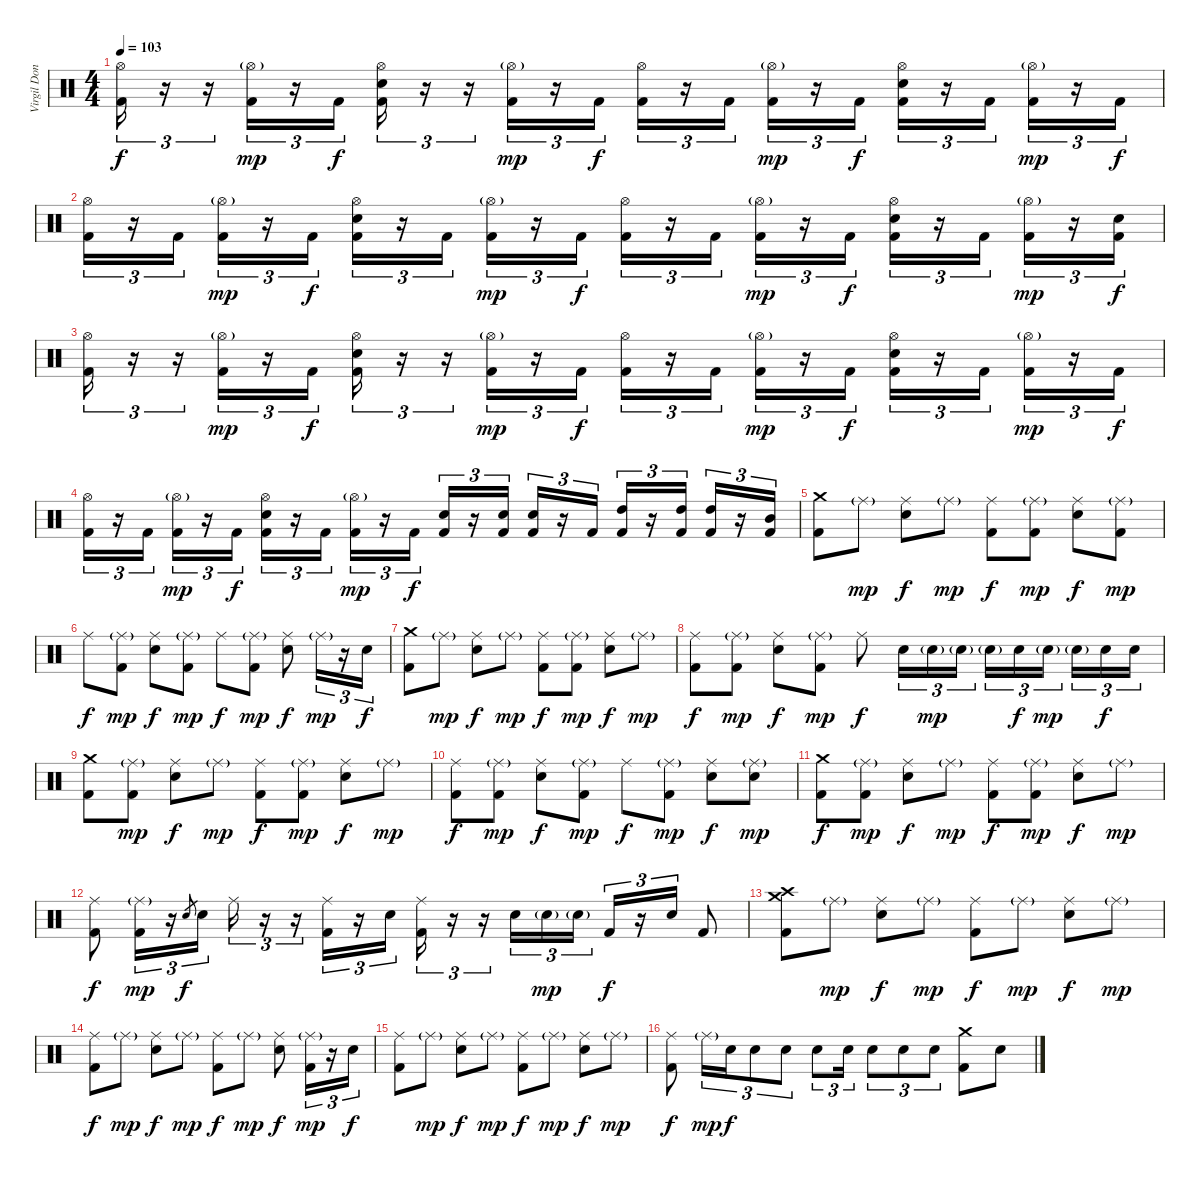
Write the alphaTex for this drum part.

\track ("Virgil Donati" "Virgil Don") {instrument percussion}
\staff {score}
\articulation defaults
\ts (4 4)
\tempo 103
\clef neutral
\ks c
("Hi-Hat (open)" "Kick (hit) 2").16{tu (3 2) dy f} r.16{tu (3 2)} r.16{tu (3 2)} ("Hi-Hat (open)"{g} "Kick (hit) 2").16{tu (3 2) dy mp} r.16{tu (3 2)} "Kick (hit) 2".16{tu (3 2) dy f} ("Hi-Hat (open)" "Snare (hit) 2" "Kick (hit) 2").16{tu (3 2)} r.16{tu (3 2)} r.16{tu (3 2)} ("Hi-Hat (open)"{g} "Kick (hit) 2").16{tu (3 2) dy mp} r.16{tu (3 2)} "Kick (hit) 2".16{tu (3 2) dy f} ("Hi-Hat (open)" "Kick (hit) 2").16{tu (3 2)} r.16{tu (3 2)} "Kick (hit) 2".16{tu (3 2)} ("Hi-Hat (open)"{g} "Kick (hit) 2").16{tu (3 2) dy mp} r.16{tu (3 2)} "Kick (hit) 2".16{tu (3 2) dy f} ("Hi-Hat (open)" "Snare (hit) 2" "Kick (hit) 2").16{tu (3 2)} r.16{tu (3 2)} "Kick (hit) 2".16{tu (3 2)} ("Hi-Hat (open)"{g} "Kick (hit) 2").16{tu (3 2) dy mp} r.16{tu (3 2)} "Kick (hit) 2".16{tu (3 2) dy f} |
("Hi-Hat (open)" "Kick (hit) 2").16{tu (3 2)} r.16{tu (3 2)} "Kick (hit) 2".16{tu (3 2)} ("Hi-Hat (open)"{g} "Kick (hit) 2").16{tu (3 2) dy mp} r.16{tu (3 2)} "Kick (hit) 2".16{tu (3 2) dy f} ("Hi-Hat (open)" "Snare (hit) 2" "Kick (hit) 2").16{tu (3 2)} r.16{tu (3 2)} "Kick (hit) 2".16{tu (3 2)} ("Hi-Hat (open)"{g} "Kick (hit) 2").16{tu (3 2) dy mp} r.16{tu (3 2)} "Kick (hit) 2".16{tu (3 2) dy f} ("Hi-Hat (open)" "Kick (hit) 2").16{tu (3 2)} r.16{tu (3 2)} "Kick (hit) 2".16{tu (3 2)} ("Hi-Hat (open)"{g} "Kick (hit) 2").16{tu (3 2) dy mp} r.16{tu (3 2)} "Kick (hit) 2".16{tu (3 2) dy f} ("Hi-Hat (open)" "Snare (hit) 2" "Kick (hit) 2").16{tu (3 2)} r.16{tu (3 2)} "Kick (hit) 2".16{tu (3 2)} ("Hi-Hat (open)"{g} "Kick (hit) 2").16{tu (3 2) dy mp} r.16{tu (3 2)} ("Snare (hit) 2" "Kick (hit) 2").16{tu (3 2) dy f} |
("Hi-Hat (open)" "Kick (hit) 2").16{tu (3 2)} r.16{tu (3 2)} r.16{tu (3 2)} ("Hi-Hat (open)"{g} "Kick (hit) 2").16{tu (3 2) dy mp} r.16{tu (3 2)} "Kick (hit) 2".16{tu (3 2) dy f} ("Hi-Hat (open)" "Snare (hit) 2" "Kick (hit) 2").16{tu (3 2)} r.16{tu (3 2)} r.16{tu (3 2)} ("Hi-Hat (open)"{g} "Kick (hit) 2").16{tu (3 2) dy mp} r.16{tu (3 2)} "Kick (hit) 2".16{tu (3 2) dy f} ("Hi-Hat (open)" "Kick (hit) 2").16{tu (3 2)} r.16{tu (3 2)} "Kick (hit) 2".16{tu (3 2)} ("Hi-Hat (open)"{g} "Kick (hit) 2").16{tu (3 2) dy mp} r.16{tu (3 2)} "Kick (hit) 2".16{tu (3 2) dy f} ("Hi-Hat (open)" "Snare (hit) 2" "Kick (hit) 2").16{tu (3 2)} r.16{tu (3 2)} "Kick (hit) 2".16{tu (3 2)} ("Hi-Hat (open)"{g} "Kick (hit) 2").16{tu (3 2) dy mp} r.16{tu (3 2)} "Kick (hit) 2".16{tu (3 2) dy f} |
("Hi-Hat (open)" "Kick (hit) 2").16{tu (3 2)} r.16{tu (3 2)} "Kick (hit) 2".16{tu (3 2)} ("Hi-Hat (open)"{g} "Kick (hit) 2").16{tu (3 2) dy mp} r.16{tu (3 2)} "Kick (hit) 2".16{tu (3 2) dy f} ("Hi-Hat (open)" "Snare (hit) 2" "Kick (hit) 2").16{tu (3 2)} r.16{tu (3 2)} "Kick (hit) 2".16{tu (3 2)} ("Hi-Hat (open)"{g} "Kick (hit) 2").16{tu (3 2) dy mp} r.16{tu (3 2)} "Kick (hit) 2".16{tu (3 2) dy f} ("Snare (hit) 2" "Kick (hit) 2").16{tu (3 2)} r.16{tu (3 2)} ("Snare (hit) 2" "Kick (hit) 2").16{tu (3 2)} ("Snare (hit) 2" "Kick (hit) 2").16{tu (3 2)} r.16{tu (3 2)} "Kick (hit) 2".16{tu (3 2)} ("High Tom (hit)" "Kick (hit) 2").16{tu (3 2)} r.16{tu (3 2)} ("High Tom (hit)" "Kick (hit) 2").16{tu (3 2)} ("High Tom (hit)" "Kick (hit) 2").16{tu (3 2)} r.16{tu (3 2)} ("Mid Tom (hit)" "Kick (hit) 2").16{tu (3 2)} |
("Crash medium (hit)" "Kick (hit) 2").8 "Ride (middle)"{g}.8{dy mp} ("Ride (middle)" "Snare (hit) 2").8{dy f} "Ride (middle)"{g}.8{dy mp} ("Ride (middle)" "Kick (hit) 2").8{dy f} ("Ride (middle)"{g} "Kick (hit) 2").8{dy mp} ("Ride (middle)" "Snare (hit) 2").8{dy f} ("Ride (middle)"{g} "Kick (hit) 2").8{dy mp} |
"Ride (middle)".8{dy f} ("Ride (middle)"{g} "Kick (hit) 2").8{dy mp} ("Ride (middle)" "Snare (hit) 2").8{dy f} ("Ride (middle)"{g} "Kick (hit) 2").8{dy mp} "Ride (middle)".8{dy f} ("Ride (middle)"{g} "Kick (hit) 2").8{dy mp} ("Ride (middle)" "Snare (hit) 2").8{dy f} "Ride (middle)"{g}.16{tu (3 2) dy mp} r.16{tu (3 2)} "Snare (hit) 2".16{tu (3 2) dy f} |
("Crash medium (hit)" "Kick (hit) 2").8 "Ride (middle)"{g}.8{dy mp} ("Ride (middle)" "Snare (hit) 2").8{dy f} "Ride (middle)"{g}.8{dy mp} ("Ride (middle)" "Kick (hit) 2").8{dy f} ("Ride (middle)"{g} "Kick (hit) 2").8{dy mp} ("Ride (middle)" "Snare (hit) 2").8{dy f} "Ride (middle)"{g}.8{dy mp} |
("Ride (middle)" "Kick (hit) 2").8{dy f} ("Ride (middle)"{g} "Kick (hit) 2").8{dy mp} ("Ride (middle)" "Snare (hit) 2").8{dy f} ("Ride (middle)"{g} "Kick (hit) 2").8{dy mp} "Ride (middle)".8{dy f} "Snare (hit) 2".16{tu (3 2)} "Snare (hit) 2"{g}.16{tu (3 2) dy mp} "Snare (hit) 2"{g}.16{tu (3 2)} "Snare (hit) 2"{g}.16{tu (3 2)} "Snare (hit) 2".16{tu (3 2) dy f} "Snare (hit) 2"{g}.16{tu (3 2) dy mp} "Snare (hit) 2"{g}.16{tu (3 2)} "Snare (hit) 2".16{tu (3 2) dy f} "Snare (hit) 2".16{tu (3 2)} |
("Crash medium (hit)" "Kick (hit) 2").8 ("Ride (middle)"{g} "Kick (hit) 2").8{dy mp} ("Ride (middle)" "Snare (hit) 2").8{dy f} "Ride (middle)"{g}.8{dy mp} ("Ride (middle)" "Kick (hit) 2").8{dy f} ("Ride (middle)"{g} "Kick (hit) 2").8{dy mp} ("Ride (middle)" "Snare (hit) 2").8{dy f} "Ride (middle)"{g}.8{dy mp} |
("Ride (middle)" "Kick (hit) 2").8{dy f} ("Ride (middle)"{g} "Kick (hit) 2").8{dy mp} ("Ride (middle)" "Snare (hit) 2").8{dy f} ("Ride (middle)"{g} "Kick (hit) 2").8{dy mp} "Ride (middle)".8{dy f} ("Ride (middle)"{g} "Kick (hit) 2").8{dy mp} ("Ride (middle)" "Snare (hit) 2").8{dy f} ("Ride (middle)"{g} "Snare (hit) 2").8{dy mp} |
("Crash medium (hit)" "Kick (hit) 2").8{dy f} ("Ride (middle)"{g} "Kick (hit) 2").8{dy mp} ("Ride (middle)" "Snare (hit) 2").8{dy f} "Ride (middle)"{g}.8{dy mp} ("Ride (middle)" "Kick (hit) 2").8{dy f} ("Ride (middle)"{g} "Kick (hit) 2").8{dy mp} ("Ride (middle)" "Snare (hit) 2").8{dy f} "Ride (middle)"{g}.8{dy mp} |
("Ride (middle)" "Kick (hit) 2").8{dy f} ("Ride (middle)"{g} "Kick (hit) 2").16{tu (3 2) dy mp} r.16{tu (3 2)} "Snare (hit) 2".8{gr dy f} "Snare (hit) 2".16{tu (3 2)} "Ride (middle)".16{tu (3 2)} r.16{tu (3 2)} r.16{tu (3 2)} ("Ride (middle)" "Kick (hit) 2").16{tu (3 2)} r.16{tu (3 2)} "Snare (hit) 2".16{tu (3 2)} ("Ride (middle)" "Kick (hit) 2").16{tu (3 2)} r.16{tu (3 2)} r.16{tu (3 2)} "Snare (hit) 2".16{tu (3 2)} "Snare (hit) 2"{g}.16{tu (3 2) dy mp} "Snare (hit) 2"{g}.16{tu (3 2)} "Kick (hit) 2".16{tu (3 2) dy f} r.16{tu (3 2)} "Snare (hit) 2".16{tu (3 2)} "Kick (hit) 2".8 |
("Crash medium (hit)" "Crash high (hit)" "Kick (hit) 2").8 "Ride (middle)"{g}.8{dy mp} ("Ride (middle)" "Snare (hit) 2").8{dy f} "Ride (middle)"{g}.8{dy mp} ("Ride (middle)" "Kick (hit) 2").8{dy f} "Ride (middle)"{g}.8{dy mp} ("Ride (middle)" "Snare (hit) 2").8{dy f} "Ride (middle)"{g}.8{dy mp} |
("Ride (middle)" "Kick (hit) 2").8{dy f} "Ride (middle)"{g}.8{dy mp} ("Ride (middle)" "Snare (hit) 2").8{dy f} "Ride (middle)"{g}.8{dy mp} ("Ride (middle)" "Kick (hit) 2").8{dy f} "Ride (middle)"{g}.8{dy mp} ("Ride (middle)" "Snare (hit) 2").8{dy f} ("Ride (middle)"{g} "Kick (hit) 2").16{tu (3 2) dy mp} r.16{tu (3 2)} "Snare (hit) 2".16{tu (3 2) dy f} |
("Ride (middle)" "Kick (hit) 2").8 "Ride (middle)"{g}.8{dy mp} ("Ride (middle)" "Snare (hit) 2").8{dy f} "Ride (middle)"{g}.8{dy mp} ("Ride (middle)" "Kick (hit) 2").8{dy f} "Ride (middle)"{g}.8{dy mp} ("Ride (middle)" "Snare (hit) 2").8{dy f} "Ride (middle)"{g}.8{dy mp} |
("Ride (middle)" "Kick (hit) 2").8{dy f} "Ride (middle)"{g}.16{tu (3 2) dy mp} "Snare (hit) 2".16{tu (3 2) dy f} "Snare (hit) 2".8{tu (3 2)} "Snare (hit) 2".8{tu (3 2)} "Snare (hit) 2".8{tu (3 2)} "Snare (hit) 2".16{tu (3 2)} "Snare (hit) 2".8{tu (3 2)} "Snare (hit) 2".8{tu (3 2)} "Snare (hit) 2".8{tu (3 2)} ("Crash medium (hit)" "Kick (hit) 2").8 "Snare (hit) 2".8
